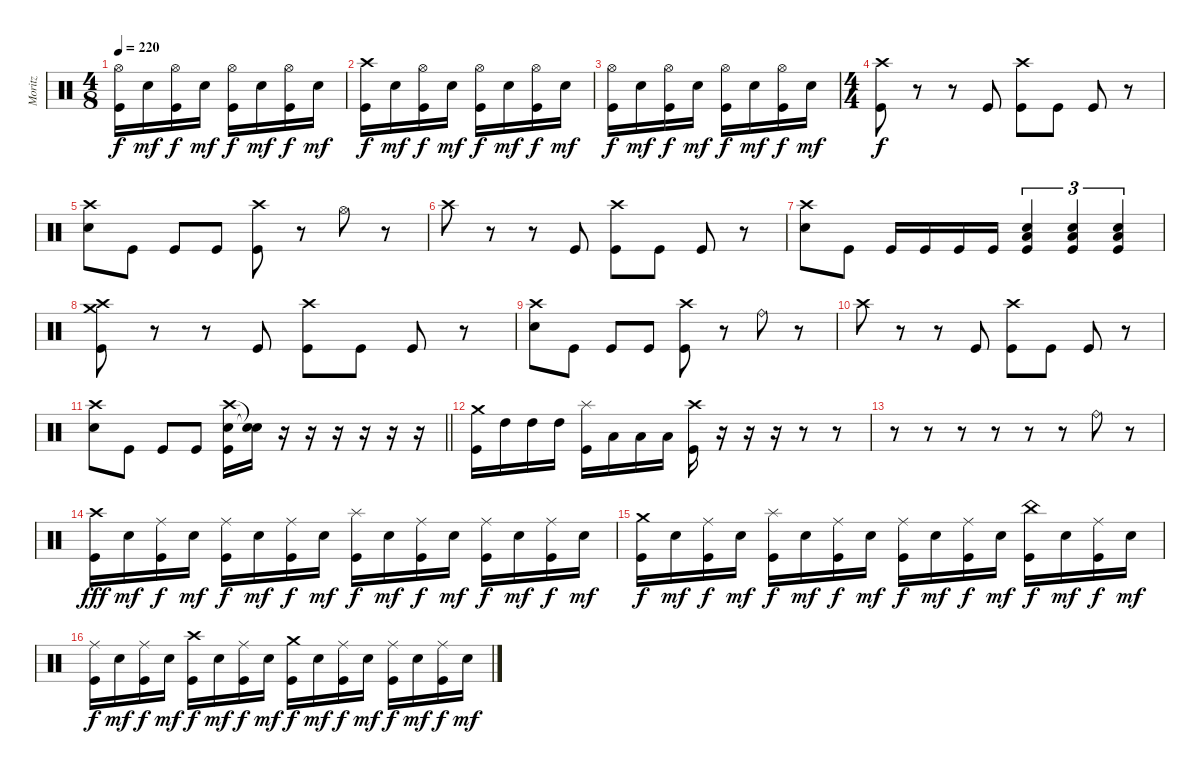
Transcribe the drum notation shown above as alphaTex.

\track ("Moritz" "Moritz") {instrument percussion}
\staff {score}
\articulation defaults
\ts (4 8)
\tempo 220
\clef neutral
\ks c
("Hi-Hat (open)" "Kick (hit)").16{dy f} "Snare (hit) 2".16{dy mf} ("Hi-Hat (open)" "Kick (hit)").16{dy f} "Snare (hit) 2".16{dy mf} ("Hi-Hat (open)" "Kick (hit)").16{dy f} "Snare (hit) 2".16{dy mf} ("Hi-Hat (open)" "Kick (hit)").16{dy f} "Snare (hit) 2".16{dy mf} |
("Crash high (hit)" "Kick (hit)").16{dy f} "Snare (hit) 2".16{dy mf} ("Hi-Hat (open)" "Kick (hit)").16{dy f} "Snare (hit) 2".16{dy mf} ("Hi-Hat (open)" "Kick (hit)").16{dy f} "Snare (hit) 2".16{dy mf} ("Hi-Hat (open)" "Kick (hit)").16{dy f} "Snare (hit) 2".16{dy mf} |
("Hi-Hat (open)" "Kick (hit)").16{dy f} "Snare (hit) 2".16{dy mf} ("Hi-Hat (open)" "Kick (hit)").16{dy f} "Snare (hit) 2".16{dy mf} ("Hi-Hat (open)" "Kick (hit)").16{dy f} "Snare (hit) 2".16{dy mf} ("Hi-Hat (open)" "Kick (hit)").16{dy f} "Snare (hit) 2".16{dy mf} |
\ts (4 4)
("Crash high (hit)" "Kick (hit)").8{dy f} r.8 r.8 "Kick (hit)".8 ("Crash high (hit)" "Kick (hit)").8 "Kick (hit)".8 "Kick (hit)".8 r.8 |
("Crash high (hit)" "Snare (hit) 2").8 "Kick (hit)".8 "Kick (hit)".8 "Kick (hit)".8 ("Crash high (hit)" "Kick (hit)").8 r.8 "Hi-Hat (open)".8 r.8 |
"Crash high (hit)".8 r.8 r.8 "Kick (hit)".8 ("Crash high (hit)" "Kick (hit)").8 "Kick (hit)".8 "Kick (hit)".8 r.8 |
("Crash high (hit)" "Snare (hit) 2").8 "Kick (hit)".8 "Kick (hit)".16 "Kick (hit)".16 "Kick (hit)".16 "Kick (hit)".16 ("Low Floor Tom (hit)" "Snare (hit) 2" "Kick (hit)").4{tu (3 2)} ("Low Floor Tom (hit)" "Snare (hit) 2" "Kick (hit)").4{tu (3 2)} ("Low Floor Tom (hit)" "Snare (hit) 2" "Kick (hit)").4{tu (3 2)} |
("Crash medium (hit)" "Crash high (hit)" "Kick (hit)").8 r.8 r.8 "Kick (hit)".8 ("Crash high (hit)" "Kick (hit)").8 "Kick (hit)".8 "Kick (hit)".8 r.8 |
("Crash high (hit)" "Snare (hit) 2").8 "Kick (hit)".8 "Kick (hit)".8 "Kick (hit)".8 ("Crash high (hit)" "Kick (hit)").8 r.8 "Ride (bell)".8 r.8 |
"Crash high (hit)".8 r.8 r.8 "Kick (hit)".8 ("Crash high (hit)" "Kick (hit)").8 "Kick (hit)".8 "Kick (hit)".8 r.8 |
\barLineRight lightlight
("Crash high (hit)" "Snare (hit) 2").8 "Kick (hit)".8 "Kick (hit)".8 "Kick (hit)".8 ("Crash high (hit)" "Snare (hit) 2" "Kick (hit)").16 ("Snare (hit)"{t} "Snare (hit)"{t}).16 r.16 r.16 r.16 r.16 r.16 r.16 |
("Crash medium (hit)" "Kick (hit)").16 "High Tom (hit)".16 "High Tom (hit)".16 "High Tom (hit)".16 ("Splash (hit)" "Kick (hit)").16 "Low Tom (hit)".16 "Low Tom (hit)".16 "Low Tom (hit)".16 ("Crash high (hit)" "Kick (hit)").16 r.16 r.16 r.16 r.8 r.8 |
r.8 r.8 r.8 r.8 r.8 r.8 "Ride (bell)".8 r.8 |
("Crash high (hit)" "Kick (hit)").16{dy fff} "Snare (hit) 2".16{dy mf} ("Ride (middle)" "Kick (hit)").16{dy f} "Snare (hit) 2".16{dy mf} ("Ride (middle)" "Kick (hit)").16{dy f} "Snare (hit) 2".16{dy mf} ("Ride (middle)" "Kick (hit)").16{dy f} "Snare (hit) 2".16{dy mf} ("Splash (hit)" "Kick (hit)").16{dy f} "Snare (hit) 2".16{dy mf} ("Ride (middle)" "Kick (hit)").16{dy f} "Snare (hit) 2".16{dy mf} ("Ride (middle)" "Kick (hit)").16{dy f} "Snare (hit) 2".16{dy mf} ("Ride (middle)" "Kick (hit)").16{dy f} "Snare (hit) 2".16{dy mf} |
("Crash medium (hit)" "Kick (hit)").16{dy f} "Snare (hit) 2".16{dy mf} ("Ride (middle)" "Kick (hit)").16{dy f} "Snare (hit) 2".16{dy mf} ("Splash (hit)" "Kick (hit)").16{dy f} "Snare (hit) 2".16{dy mf} ("Ride (middle)" "Kick (hit)").16{dy f} "Snare (hit) 2".16{dy mf} ("Ride (middle)" "Kick (hit)").16{dy f} "Snare (hit) 2".16{dy mf} ("Ride (middle)" "Kick (hit)").16{dy f} "Snare (hit) 2".16{dy mf} ("China (hit)" "Kick (hit)").16{dy f} "Snare (hit) 2".16{dy mf} ("Ride (middle)" "Kick (hit)").16{dy f} "Snare (hit) 2".16{dy mf} |
("Ride (middle)" "Kick (hit)").16{dy f} "Snare (hit) 2".16{dy mf} ("Ride (middle)" "Kick (hit)").16{dy f} "Snare (hit) 2".16{dy mf} ("Crash high (hit)" "Kick (hit)").16{dy f} "Snare (hit) 2".16{dy mf} ("Ride (middle)" "Kick (hit)").16{dy f} "Snare (hit) 2".16{dy mf} ("Crash medium (hit)" "Kick (hit)").16{dy f} "Snare (hit) 2".16{dy mf} ("Ride (middle)" "Kick (hit)").16{dy f} "Snare (hit) 2".16{dy mf} ("Ride (middle)" "Kick (hit)").16{dy f} "Snare (hit) 2".16{dy mf} ("Ride (middle)" "Kick (hit)").16{dy f} "Snare (hit) 2".16{dy mf}
